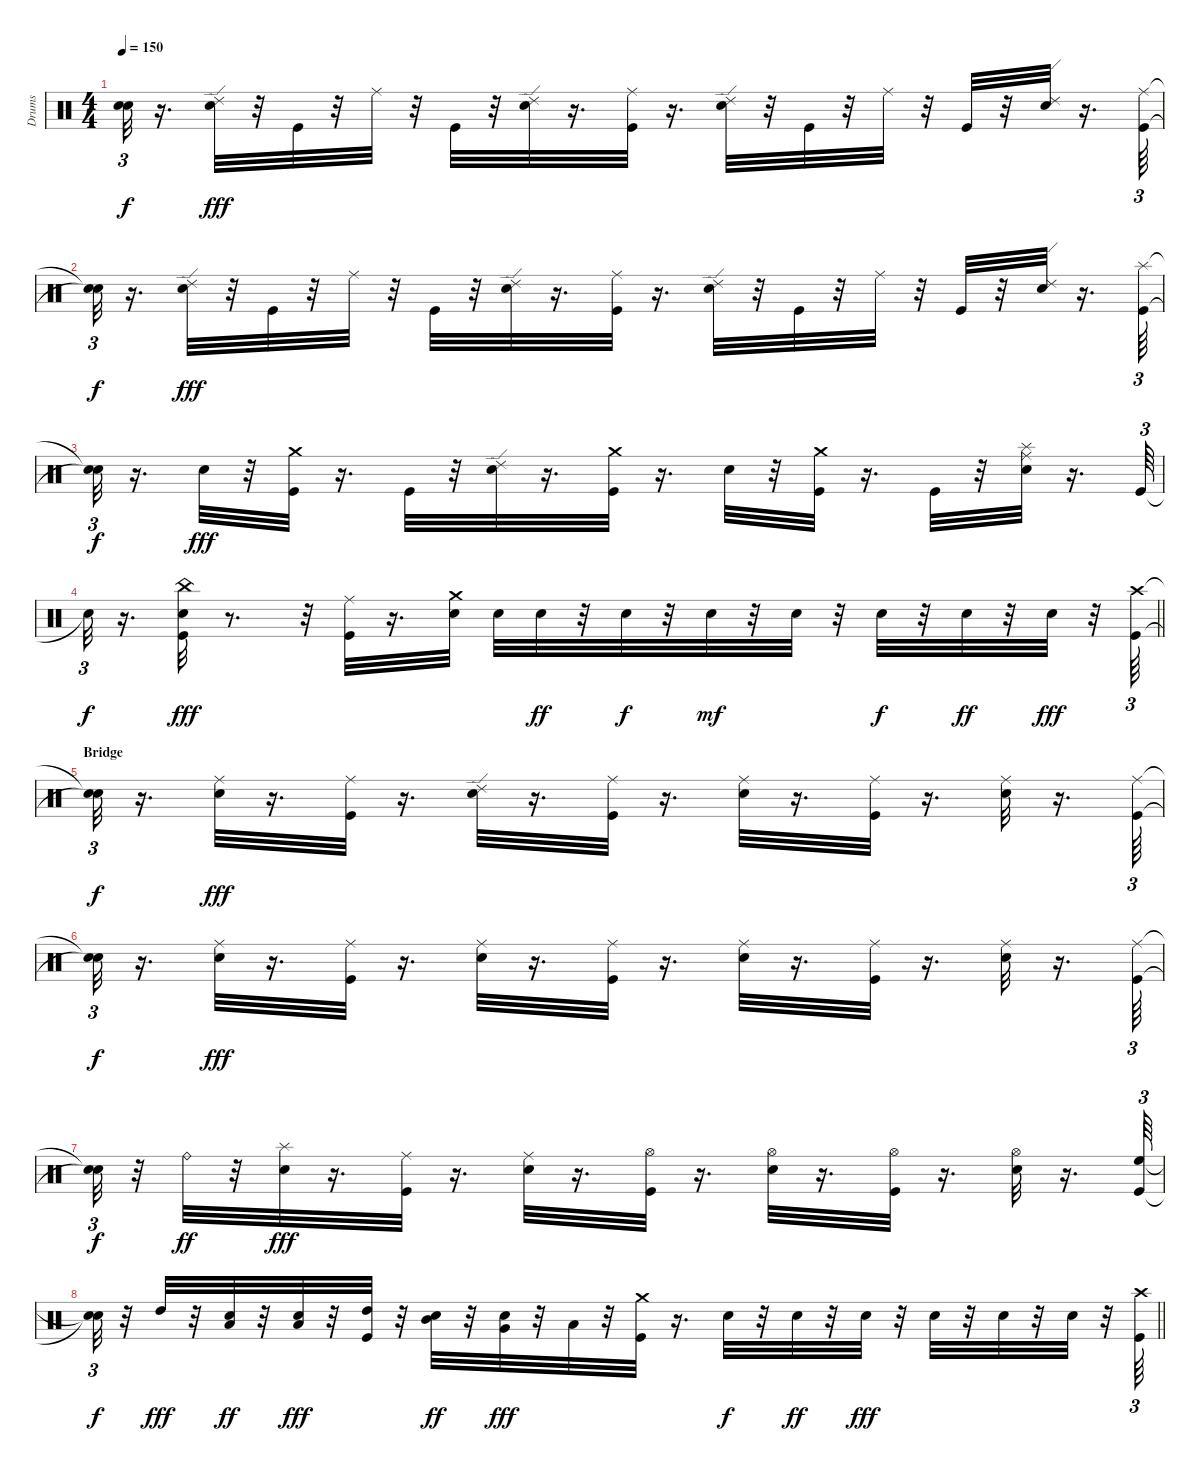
\track ("Drums" "Drums") {instrument percussion}
\staff {score}
\articulation defaults
\ts (4 4)
\tempo 150
\clef neutral
\ks c
("Snare (hit)"{t} "Snare (hit)"{t}).32{tu (3 2) dy f} r.16{d} ("Electric Snare (hit)" "Ride (edge) 2").32{dy fff} r.32 "Kick (hit)".32 r.32 "Ride (middle)".32 r.32 "Kick (hit)".32 r.32 ("Electric Snare (hit)" "Ride (edge) 2").32 r.16{d} ("Kick (hit)" "Ride (middle)").32 r.16{d} ("Electric Snare (hit)" "Ride (edge) 2").32 r.32 "Kick (hit)".32 r.32 "Ride (middle)".32 r.32 "Kick (hit)".32 r.32 ("Electric Snare (hit)" "Ride (edge) 2").32 r.16{d} ("Kick (hit)" "Ride (middle)").64{tu (3 2)} |
("Snare (hit)"{t} "Snare (hit)"{t}).32{tu (3 2) dy f} r.16{d} ("Electric Snare (hit)" "Ride (edge) 2").32{dy fff} r.32 "Kick (hit)".32 r.32 "Ride (middle)".32 r.32 "Kick (hit)".32 r.32 ("Electric Snare (hit)" "Ride (edge) 2").32 r.16{d} ("Kick (hit)" "Ride (middle)").32 r.16{d} ("Electric Snare (hit)" "Ride (edge) 2").32 r.32 "Kick (hit)".32 r.32 "Ride (middle)".32 r.32 "Kick (hit)".32 r.32 ("Electric Snare (hit)" "Ride (edge) 2").32 r.16{d} ("Splash (hit)" "Kick (hit)").64{tu (3 2)} |
("Snare (hit)"{t} "Snare (hit)"{t}).32{tu (3 2) dy f} r.16{d} "Electric Snare (hit)".32{dy fff} r.32 ("Crash medium (hit)" "Kick (hit)").32 r.16{d} "Kick (hit)".32 r.32 ("Electric Snare (hit)" "Ride (edge) 2").32 r.16{d} ("Crash medium (hit)" "Kick (hit)").32 r.16{d} "Electric Snare (hit)".32 r.32 ("Crash medium (hit)" "Kick (hit)").32 r.16{d} "Kick (hit)".32 r.32 ("Splash (hit)" "Electric Snare (hit)" "Ride (middle)").32 r.16{d} "Kick (hit)".64{tu (3 2)} |
\barLineRight lightlight "Snare (hit)"{t}.32{tu (3 2) dy f}
r.16{d} ("Electric Snare (hit)" "China (hit)" "Kick (hit)").32{dy fff} r.8{d} r.32 ("Kick (hit)" "Ride (middle)").32 r.16{d} ("Electric Snare (hit)" "Crash medium (hit)").32 "Electric Snare (hit)".32 "Electric Snare (hit)".32{dy ff} r.32 "Electric Snare (hit)".32{dy f} r.32 "Electric Snare (hit)".32{dy mf} r.32 "Electric Snare (hit)".32 r.32 "Electric Snare (hit)".32{dy f} r.32 "Electric Snare (hit)".32{dy ff} r.32 "Electric Snare (hit)".32{dy fff} r.32 ("Crash high (hit)" "Kick (hit)").64{tu (3 2)} |
\section ("" "Bridge")
("Snare (hit)"{t} "Snare (hit)"{t}).32{tu (3 2) dy f} r.16{d} ("Electric Snare (hit)" "Ride (middle)").32{dy fff} r.16{d} ("Kick (hit)" "Ride (middle)").32 r.16{d} ("Electric Snare (hit)" "Ride (edge) 2").32 r.16{d} ("Kick (hit)" "Ride (middle)").32 r.16{d} ("Electric Snare (hit)" "Ride (middle)").32 r.16{d} ("Kick (hit)" "Ride (middle)").32 r.16{d} ("Electric Snare (hit)" "Ride (middle)").32 r.16{d} ("Kick (hit)" "Ride (middle)").64{tu (3 2)} |
("Snare (hit)"{t} "Snare (hit)"{t}).32{tu (3 2) dy f} r.16{d} ("Electric Snare (hit)" "Ride (middle)").32{dy fff} r.16{d} ("Kick (hit)" "Ride (middle)").32 r.16{d} ("Electric Snare (hit)" "Ride (middle)").32 r.16{d} ("Kick (hit)" "Ride (middle)").32 r.16{d} ("Electric Snare (hit)" "Ride (middle)").32 r.16{d} ("Kick (hit)" "Ride (middle)").32 r.16{d} ("Electric Snare (hit)" "Ride (middle)").32 r.16{d} ("Kick (hit)" "Ride (middle)").64{tu (3 2)} |
("Snare (hit)"{t} "Snare (hit)"{t}).32{tu (3 2) dy f} r.32 "Ride (bell)".32{dy ff} r.32 ("Electric Snare (hit)" "Splash (hit)").32{dy fff} r.16{d} ("Kick (hit)" "Ride (middle)").32 r.16{d} ("Electric Snare (hit)" "Ride (middle)").32 r.16{d} ("Kick (hit)" "Hi-Hat (open)").32 r.16{d} ("Electric Snare (hit)" "Hi-Hat (open)").32 r.16{d} ("Kick (hit)" "Hi-Hat (open)").32 r.16{d} ("Electric Snare (hit)" "Hi-Hat (open)").32 r.16{d} ("High Floor Tom (hit)" "Kick (hit)").64{tu (3 2)} |
\barLineRight lightlight
("Snare (hit)"{t} "Snare (hit)"{t}).32{tu (3 2) dy f} r.32 "High Tom (hit)".32{dy fff} r.32 ("Low Tom (hit)" "Electric Snare (hit)").32{dy ff} r.32 ("Low Floor Tom (hit)" "Electric Snare (hit)").32{dy fff} r.32 ("High Tom (hit)" "Kick (hit)").32 r.32 ("Mid Tom (hit)" "Electric Snare (hit)").32{dy ff} r.32 ("Very Low Tom (hit)" "Electric Snare (hit)").32{dy fff} r.32 "Low Floor Tom (hit)".32 r.32 ("Kick (hit)" "Crash medium (hit)").32 r.16{d} "Electric Snare (hit)".32{dy f} r.32 "Electric Snare (hit)".32{dy ff} r.32 "Electric Snare (hit)".32{dy fff} r.32 "Electric Snare (hit)".32 r.32 "Electric Snare (hit)".32 r.32 "Electric Snare (hit)".32 r.32 ("Crash high (hit)" "Kick (hit)").64{tu (3 2)}
